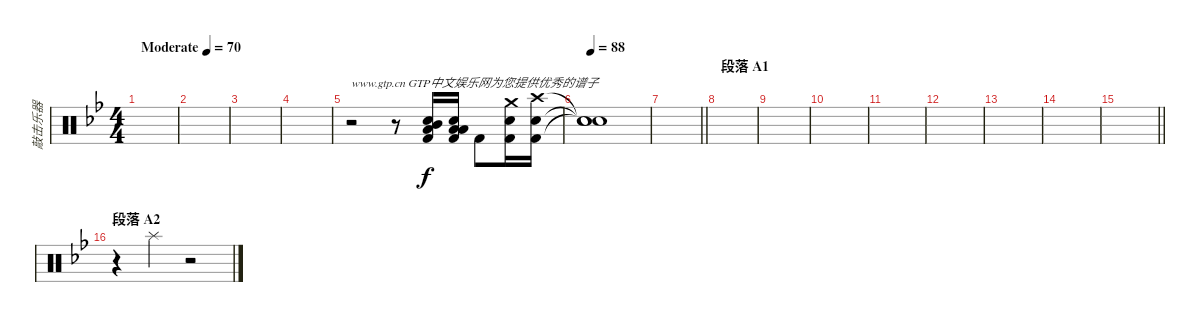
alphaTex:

\track ("敲击乐器" "敲击乐器") {instrument percussion}
\staff {score}
\articulation defaults
\ts (4 4)
\tempo (70 "Moderate")
\clef neutral
\ks bb
|
|
|
|
r.2{txt "www.gtp.cn GTP中文娱乐网为您提供优秀的谱子"} r.8 ("Mid Tom (hit)" "Snare (hit) 2" "Low Floor Tom (hit)" "Kick (hit) 2").16 ("Low Tom (hit)" "Snare (hit) 2" "Low Floor Tom (hit)" "Kick (hit) 2").16 "Kick (hit) 2".8{dy f} ("Crash medium (hit)" "Snare (hit) 2" "Kick (hit) 2").16 ("Crash high (hit)" "Snare (hit) 2" "Kick (hit) 2").16 |
\tempo 88
("Snare (hit)"{t} "Snare (hit)"{t} "Snare (hit)"{t}).1 |
\barLineRight lightlight
|
\section ("" "段落 A1")
|
|
|
|
|
|
|
\barLineRight lightlight
|
\section ("" "段落 A2")
r.4 "Splash (hit)".4 r.2
